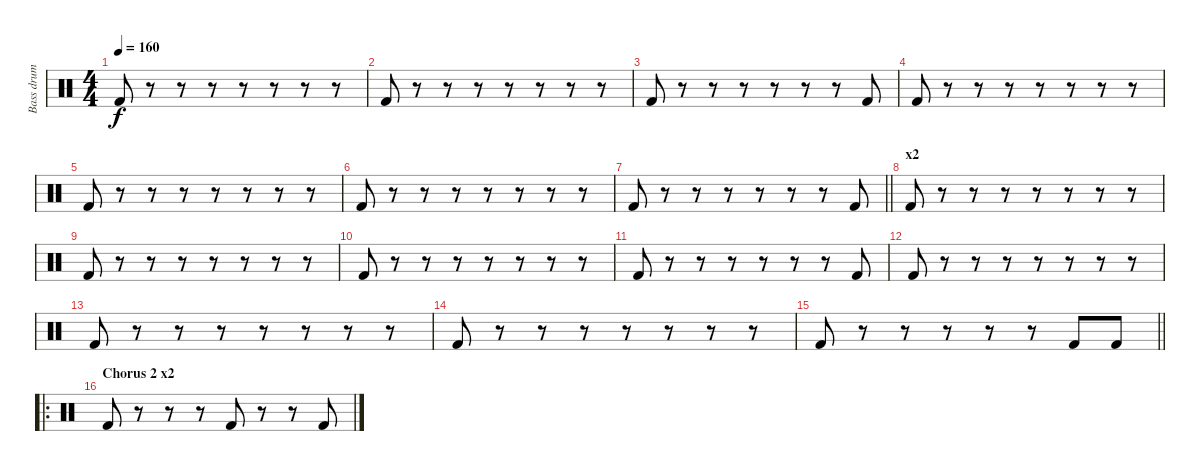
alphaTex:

\track ("Bass drum" "Bass drum") {instrument percussion}
\staff {score}
\articulation defaults
\ts (4 4)
\tempo 160
\clef neutral
\ks c "Kick (hit) 2".8{dy f}
r.8 r.8 r.8 r.8 r.8 r.8 r.8 |
"Kick (hit) 2".8 r.8 r.8 r.8 r.8 r.8 r.8 r.8 |
"Kick (hit) 2".8 r.8 r.8 r.8 r.8 r.8 r.8 "Kick (hit) 2".8 |
"Kick (hit) 2".8 r.8 r.8 r.8 r.8 r.8 r.8 r.8 |
"Kick (hit) 2".8 r.8 r.8 r.8 r.8 r.8 r.8 r.8 |
"Kick (hit) 2".8 r.8 r.8 r.8 r.8 r.8 r.8 r.8 |
\barLineRight lightlight "Kick (hit) 2".8
r.8 r.8 r.8 r.8 r.8 r.8 "Kick (hit) 2".8 |
\section ("" "x2")
"Kick (hit) 2".8 r.8 r.8 r.8 r.8 r.8 r.8 r.8 |
"Kick (hit) 2".8 r.8 r.8 r.8 r.8 r.8 r.8 r.8 |
"Kick (hit) 2".8 r.8 r.8 r.8 r.8 r.8 r.8 r.8 |
"Kick (hit) 2".8 r.8 r.8 r.8 r.8 r.8 r.8 "Kick (hit) 2".8 |
"Kick (hit) 2".8 r.8 r.8 r.8 r.8 r.8 r.8 r.8 |
"Kick (hit) 2".8 r.8 r.8 r.8 r.8 r.8 r.8 r.8 |
"Kick (hit) 2".8 r.8 r.8 r.8 r.8 r.8 r.8 r.8 |
\barLineRight lightlight "Kick (hit) 2".8
r.8 r.8 r.8 r.8 r.8 "Kick (hit) 2".8 "Kick (hit) 2".8 |
\ro
\section ("" "Chorus 2 x2")
"Kick (hit) 2".8 r.8 r.8 r.8 "Kick (hit) 2".8 r.8 r.8 "Kick (hit) 2".8
